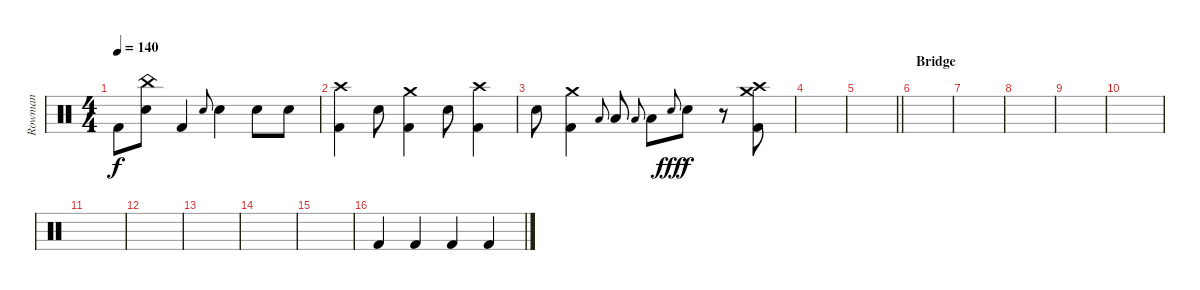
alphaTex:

\track ("Rowman" "Rowman") {instrument percussion}
\staff {score}
\articulation defaults
\ts (4 4)
\tempo 140
\clef neutral
\ks c "Kick (hit) 2".8{dy f}
("China (hit)" "Snare (hit) 2").8 "Kick (hit) 2".4 "Snare (hit) 2".8{gr onbeat} "Snare (hit) 2".4 "Snare (hit) 2".8 "Snare (hit) 2".8 |
("Crash high (hit)" "Kick (hit) 2").4 "Snare (hit) 2".8 ("Crash medium (hit)" "Kick (hit) 2").4 "Snare (hit) 2".8 ("Crash high (hit)" "Kick (hit) 2").4 |
"Snare (hit) 2".8 ("Crash medium (hit)" "Kick (hit) 2").4 "Low Floor Tom (hit)".8{gr onbeat} "Low Floor Tom (hit)".8 "Low Tom (hit)".8{gr onbeat} "Low Tom (hit)".8 "Snare (hit) 2".8{gr onbeat dy fff} "Snare (hit) 2".8{dy f} r.8 ("Crash medium (hit)" "Crash high (hit)" "Kick (hit) 2").8 |
|
\barLineRight lightlight
|
\section ("" "Bridge")
|
|
|
|
|
|
|
|
|
|
"Kick (hit) 2".4 "Kick (hit) 2".4 "Kick (hit) 2".4 "Kick (hit) 2".4
